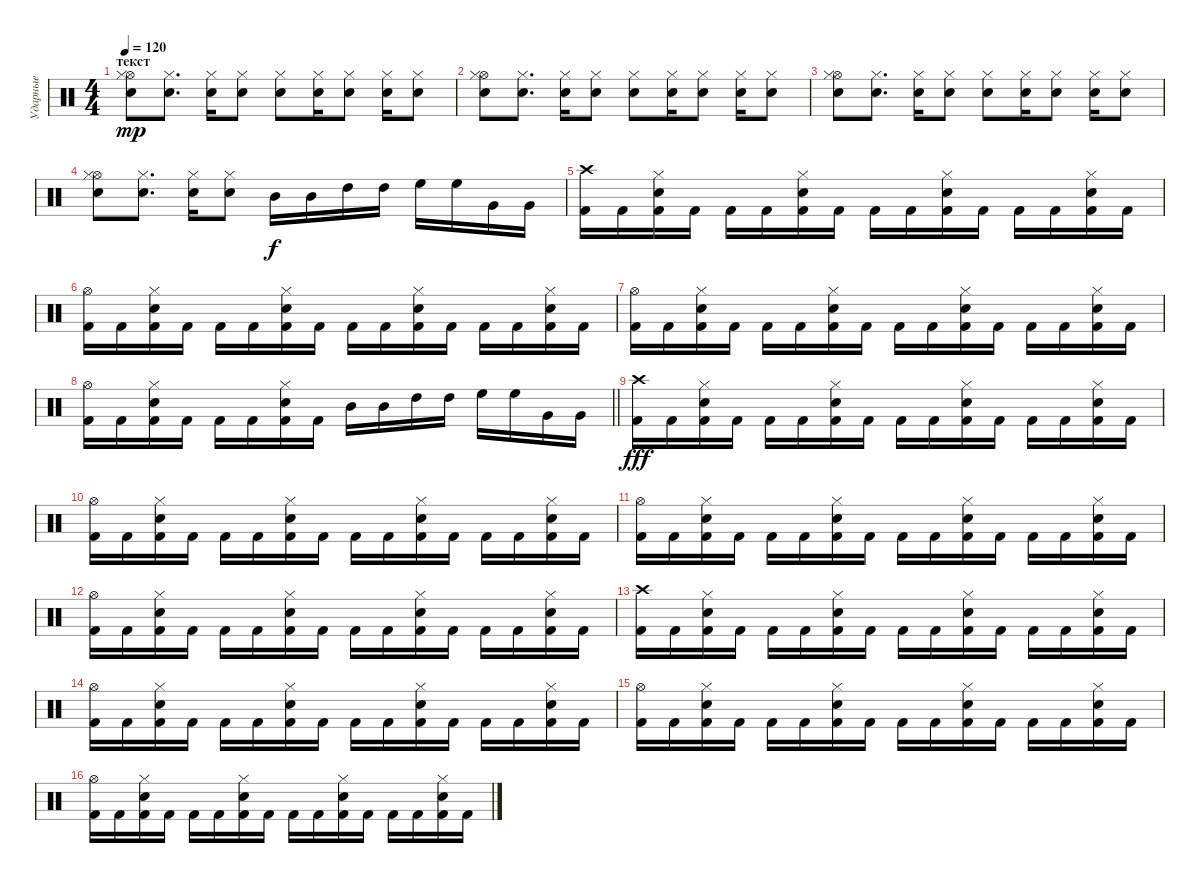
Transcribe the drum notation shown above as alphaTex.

\track ("Ударные" "Ударные") {instrument percussion}
\staff {score}
\articulation defaults
\ts (4 4)
\section ("" "текст")
\tempo 120
\clef neutral
\ks c
("Hi-Hat (open)" "Hi-Hat (closed)" "Snare (hit) 2").8{dy mp} ("Hi-Hat (closed)" "Snare (hit) 2").8{d} ("Hi-Hat (closed)" "Snare (hit) 2").16 ("Hi-Hat (closed)" "Snare (hit) 2").8 ("Hi-Hat (closed)" "Snare (hit) 2").8 ("Hi-Hat (closed)" "Snare (hit) 2").16 ("Hi-Hat (closed)" "Snare (hit) 2").8 ("Hi-Hat (closed)" "Snare (hit) 2").16 ("Hi-Hat (closed)" "Snare (hit) 2").8 |
("Hi-Hat (open)" "Hi-Hat (closed)" "Snare (hit) 2").8 ("Hi-Hat (closed)" "Snare (hit) 2").8{d} ("Hi-Hat (closed)" "Snare (hit) 2").16 ("Hi-Hat (closed)" "Snare (hit) 2").8 ("Hi-Hat (closed)" "Snare (hit) 2").8 ("Hi-Hat (closed)" "Snare (hit) 2").16 ("Hi-Hat (closed)" "Snare (hit) 2").8 ("Hi-Hat (closed)" "Snare (hit) 2").16 ("Hi-Hat (closed)" "Snare (hit) 2").8 |
("Hi-Hat (open)" "Hi-Hat (closed)" "Snare (hit) 2").8 ("Hi-Hat (closed)" "Snare (hit) 2").8{d} ("Hi-Hat (closed)" "Snare (hit) 2").16 ("Hi-Hat (closed)" "Snare (hit) 2").8 ("Hi-Hat (closed)" "Snare (hit) 2").8 ("Hi-Hat (closed)" "Snare (hit) 2").16 ("Hi-Hat (closed)" "Snare (hit) 2").8 ("Hi-Hat (closed)" "Snare (hit) 2").16 ("Hi-Hat (closed)" "Snare (hit) 2").8 |
("Hi-Hat (open)" "Hi-Hat (closed)" "Snare (hit) 2").8 ("Hi-Hat (closed)" "Snare (hit) 2").8{d} ("Hi-Hat (closed)" "Snare (hit) 2").16 ("Hi-Hat (closed)" "Snare (hit) 2").8 "Mid Tom (hit)".16{dy f} "Mid Tom (hit)".16 "High Tom (hit)".16 "High Tom (hit)".16 "High Floor Tom (hit)".16 "High Floor Tom (hit)".16 "Very Low Tom (hit)".16 "Very Low Tom (hit)".16 |
("Crash high (hit)" "Kick (hit) 2").16 "Kick (hit) 2".16 ("Snare (hit) 2" "Hi-Hat (closed)" "Kick (hit) 2").16 "Kick (hit) 2".16 "Kick (hit) 2".16 "Kick (hit) 2".16 ("Snare (hit) 2" "Hi-Hat (closed)" "Kick (hit) 2").16 "Kick (hit) 2".16 "Kick (hit) 2".16 "Kick (hit) 2".16 ("Snare (hit) 2" "Hi-Hat (closed)" "Kick (hit) 2").16 "Kick (hit) 2".16 "Kick (hit) 2".16 "Kick (hit) 2".16 ("Snare (hit) 2" "Hi-Hat (closed)" "Kick (hit) 2").16 "Kick (hit) 2".16 |
("Hi-Hat (open)" "Kick (hit) 2").16 "Kick (hit) 2".16 ("Snare (hit) 2" "Hi-Hat (closed)" "Kick (hit) 2").16 "Kick (hit) 2".16 "Kick (hit) 2".16 "Kick (hit) 2".16 ("Snare (hit) 2" "Hi-Hat (closed)" "Kick (hit) 2").16 "Kick (hit) 2".16 "Kick (hit) 2".16 "Kick (hit) 2".16 ("Snare (hit) 2" "Hi-Hat (closed)" "Kick (hit) 2").16 "Kick (hit) 2".16 "Kick (hit) 2".16 "Kick (hit) 2".16 ("Snare (hit) 2" "Hi-Hat (closed)" "Kick (hit) 2").16 "Kick (hit) 2".16 |
("Hi-Hat (open)" "Kick (hit) 2").16 "Kick (hit) 2".16 ("Snare (hit) 2" "Hi-Hat (closed)" "Kick (hit) 2").16 "Kick (hit) 2".16 "Kick (hit) 2".16 "Kick (hit) 2".16 ("Snare (hit) 2" "Hi-Hat (closed)" "Kick (hit) 2").16 "Kick (hit) 2".16 "Kick (hit) 2".16 "Kick (hit) 2".16 ("Snare (hit) 2" "Hi-Hat (closed)" "Kick (hit) 2").16 "Kick (hit) 2".16 "Kick (hit) 2".16 "Kick (hit) 2".16 ("Snare (hit) 2" "Hi-Hat (closed)" "Kick (hit) 2").16 "Kick (hit) 2".16 |
\barLineRight lightlight
("Hi-Hat (open)" "Kick (hit) 2").16 "Kick (hit) 2".16 ("Snare (hit) 2" "Hi-Hat (closed)" "Kick (hit) 2").16 "Kick (hit) 2".16 "Kick (hit) 2".16 "Kick (hit) 2".16 ("Snare (hit) 2" "Hi-Hat (closed)" "Kick (hit) 2").16 "Kick (hit) 2".16 "Mid Tom (hit)".16 "Mid Tom (hit)".16 "High Tom (hit)".16 "High Tom (hit)".16 "High Floor Tom (hit)".16 "High Floor Tom (hit)".16 "Very Low Tom (hit)".16 "Very Low Tom (hit)".16 |
("Crash high (hit)" "Kick (hit) 2").16{dy fff} "Kick (hit) 2".16 ("Snare (hit) 2" "Hi-Hat (closed)" "Kick (hit) 2").16 "Kick (hit) 2".16 "Kick (hit) 2".16 "Kick (hit) 2".16 ("Snare (hit) 2" "Hi-Hat (closed)" "Kick (hit) 2").16 "Kick (hit) 2".16 "Kick (hit) 2".16 "Kick (hit) 2".16 ("Snare (hit) 2" "Hi-Hat (closed)" "Kick (hit) 2").16 "Kick (hit) 2".16 "Kick (hit) 2".16 "Kick (hit) 2".16 ("Snare (hit) 2" "Hi-Hat (closed)" "Kick (hit) 2").16 "Kick (hit) 2".16 |
("Hi-Hat (open)" "Kick (hit) 2").16 "Kick (hit) 2".16 ("Snare (hit) 2" "Hi-Hat (closed)" "Kick (hit) 2").16 "Kick (hit) 2".16 "Kick (hit) 2".16 "Kick (hit) 2".16 ("Snare (hit) 2" "Hi-Hat (closed)" "Kick (hit) 2").16 "Kick (hit) 2".16 "Kick (hit) 2".16 "Kick (hit) 2".16 ("Snare (hit) 2" "Hi-Hat (closed)" "Kick (hit) 2").16 "Kick (hit) 2".16 "Kick (hit) 2".16 "Kick (hit) 2".16 ("Snare (hit) 2" "Hi-Hat (closed)" "Kick (hit) 2").16 "Kick (hit) 2".16 |
("Hi-Hat (open)" "Kick (hit) 2").16 "Kick (hit) 2".16 ("Snare (hit) 2" "Hi-Hat (closed)" "Kick (hit) 2").16 "Kick (hit) 2".16 "Kick (hit) 2".16 "Kick (hit) 2".16 ("Snare (hit) 2" "Hi-Hat (closed)" "Kick (hit) 2").16 "Kick (hit) 2".16 "Kick (hit) 2".16 "Kick (hit) 2".16 ("Snare (hit) 2" "Hi-Hat (closed)" "Kick (hit) 2").16 "Kick (hit) 2".16 "Kick (hit) 2".16 "Kick (hit) 2".16 ("Snare (hit) 2" "Hi-Hat (closed)" "Kick (hit) 2").16 "Kick (hit) 2".16 |
("Hi-Hat (open)" "Kick (hit) 2").16 "Kick (hit) 2".16 ("Snare (hit) 2" "Hi-Hat (closed)" "Kick (hit) 2").16 "Kick (hit) 2".16 "Kick (hit) 2".16 "Kick (hit) 2".16 ("Snare (hit) 2" "Hi-Hat (closed)" "Kick (hit) 2").16 "Kick (hit) 2".16 "Kick (hit) 2".16 "Kick (hit) 2".16 ("Snare (hit) 2" "Hi-Hat (closed)" "Kick (hit) 2").16 "Kick (hit) 2".16 "Kick (hit) 2".16 "Kick (hit) 2".16 ("Snare (hit) 2" "Hi-Hat (closed)" "Kick (hit) 2").16 "Kick (hit) 2".16 |
("Crash high (hit)" "Kick (hit) 2").16 "Kick (hit) 2".16 ("Snare (hit) 2" "Hi-Hat (closed)" "Kick (hit) 2").16 "Kick (hit) 2".16 "Kick (hit) 2".16 "Kick (hit) 2".16 ("Snare (hit) 2" "Hi-Hat (closed)" "Kick (hit) 2").16 "Kick (hit) 2".16 "Kick (hit) 2".16 "Kick (hit) 2".16 ("Snare (hit) 2" "Hi-Hat (closed)" "Kick (hit) 2").16 "Kick (hit) 2".16 "Kick (hit) 2".16 "Kick (hit) 2".16 ("Snare (hit) 2" "Hi-Hat (closed)" "Kick (hit) 2").16 "Kick (hit) 2".16 |
("Hi-Hat (open)" "Kick (hit) 2").16 "Kick (hit) 2".16 ("Snare (hit) 2" "Hi-Hat (closed)" "Kick (hit) 2").16 "Kick (hit) 2".16 "Kick (hit) 2".16 "Kick (hit) 2".16 ("Snare (hit) 2" "Hi-Hat (closed)" "Kick (hit) 2").16 "Kick (hit) 2".16 "Kick (hit) 2".16 "Kick (hit) 2".16 ("Snare (hit) 2" "Hi-Hat (closed)" "Kick (hit) 2").16 "Kick (hit) 2".16 "Kick (hit) 2".16 "Kick (hit) 2".16 ("Snare (hit) 2" "Hi-Hat (closed)" "Kick (hit) 2").16 "Kick (hit) 2".16 |
("Hi-Hat (open)" "Kick (hit) 2").16 "Kick (hit) 2".16 ("Snare (hit) 2" "Hi-Hat (closed)" "Kick (hit) 2").16 "Kick (hit) 2".16 "Kick (hit) 2".16 "Kick (hit) 2".16 ("Snare (hit) 2" "Hi-Hat (closed)" "Kick (hit) 2").16 "Kick (hit) 2".16 "Kick (hit) 2".16 "Kick (hit) 2".16 ("Snare (hit) 2" "Hi-Hat (closed)" "Kick (hit) 2").16 "Kick (hit) 2".16 "Kick (hit) 2".16 "Kick (hit) 2".16 ("Snare (hit) 2" "Hi-Hat (closed)" "Kick (hit) 2").16 "Kick (hit) 2".16 |
("Hi-Hat (open)" "Kick (hit) 2").16 "Kick (hit) 2".16 ("Snare (hit) 2" "Hi-Hat (closed)" "Kick (hit) 2").16 "Kick (hit) 2".16 "Kick (hit) 2".16 "Kick (hit) 2".16 ("Snare (hit) 2" "Hi-Hat (closed)" "Kick (hit) 2").16 "Kick (hit) 2".16 "Kick (hit) 2".16 "Kick (hit) 2".16 ("Snare (hit) 2" "Hi-Hat (closed)" "Kick (hit) 2").16 "Kick (hit) 2".16 "Kick (hit) 2".16 "Kick (hit) 2".16 ("Snare (hit) 2" "Hi-Hat (closed)" "Kick (hit) 2").16 "Kick (hit) 2".16
